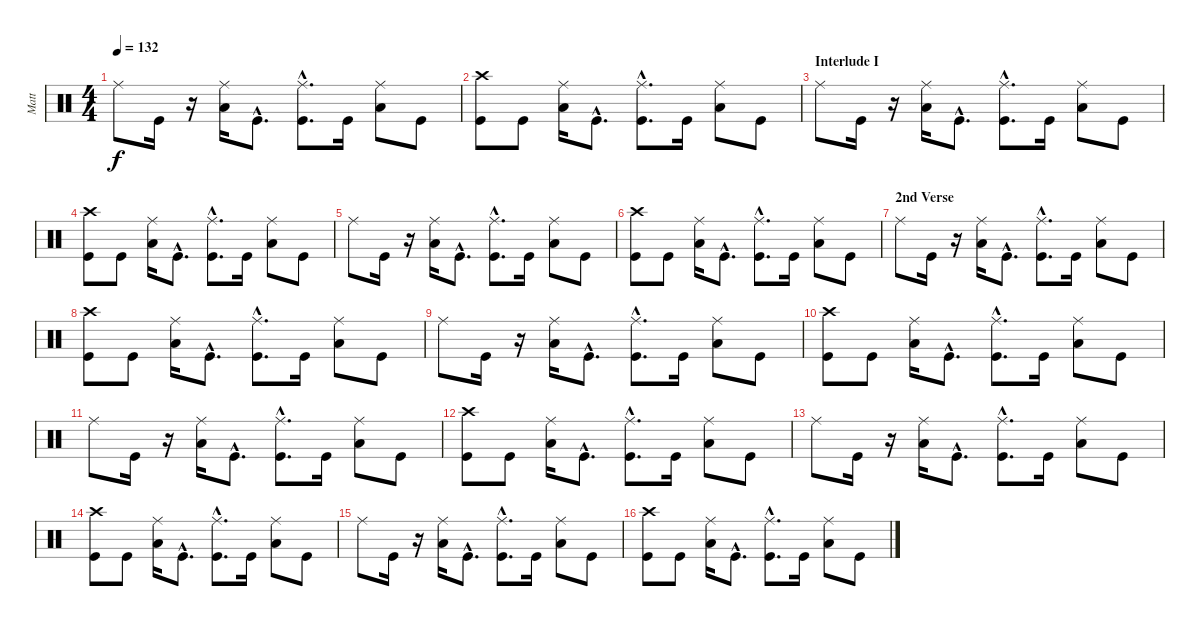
\track ("Matt" "Matt") {instrument percussion}
\staff {score}
\articulation defaults
\ts (4 4)
\tempo 132
\clef neutral
\ks c "Ride (middle)".8{dy f} "Kick (hit)".16
r.16 ("Ride (middle)" "Low Tom (hit)").16 "Kick (hit)"{hac}.8{d} ("Ride (middle)" "Kick (hit)"{hac}).8{d} "Kick (hit)".16 ("Low Tom (hit)" "Ride (middle)").8 "Kick (hit)".8 |
("Kick (hit)" "Crash high (hit)").8 "Kick (hit)".8 ("Ride (middle)" "Low Tom (hit)").16 "Kick (hit)"{hac}.8{d} ("Kick (hit)"{hac} "Ride (middle)").8{d} "Kick (hit)".16 ("Low Tom (hit)" "Ride (middle)").8 "Kick (hit)".8 |
\section ("" "Interlude I")
"Ride (middle)".8 "Kick (hit)".16 r.16 ("Ride (middle)" "Low Tom (hit)").16 "Kick (hit)"{hac}.8{d} ("Kick (hit)"{hac} "Ride (middle)").8{d} "Kick (hit)".16 ("Ride (middle)" "Low Tom (hit)").8 "Kick (hit)".8 |
("Kick (hit)" "Crash high (hit)").8 "Kick (hit)".8 ("Ride (middle)" "Low Tom (hit)").16 "Kick (hit)"{hac}.8{d} ("Ride (middle)" "Kick (hit)"{hac}).8{d} "Kick (hit)".16 ("Ride (middle)" "Low Tom (hit)").8 "Kick (hit)".8 |
"Ride (middle)".8 "Kick (hit)".16 r.16 ("Ride (middle)" "Low Tom (hit)").16 "Kick (hit)"{hac}.8{d} ("Kick (hit)"{hac} "Ride (middle)").8{d} "Kick (hit)".16 ("Low Tom (hit)" "Ride (middle)").8 "Kick (hit)".8 |
("Crash high (hit)" "Kick (hit)").8 "Kick (hit)".8 ("Low Tom (hit)" "Ride (middle)").16 "Kick (hit)"{hac}.8{d} ("Ride (middle)" "Kick (hit)"{hac}).8{d} "Kick (hit)".16 ("Ride (middle)" "Low Tom (hit)").8 "Kick (hit)".8 |
\section ("" "2nd Verse")
"Ride (middle)".8 "Kick (hit)".16 r.16 ("Low Tom (hit)" "Ride (middle)").16 "Kick (hit)"{hac}.8{d} ("Kick (hit)"{hac} "Ride (middle)").8{d} "Kick (hit)".16 ("Ride (middle)" "Low Tom (hit)").8 "Kick (hit)".8 |
("Kick (hit)" "Crash high (hit)").8 "Kick (hit)".8 ("Low Tom (hit)" "Ride (middle)").16 "Kick (hit)"{hac}.8{d} ("Ride (middle)" "Kick (hit)"{hac}).8{d} "Kick (hit)".16 ("Ride (middle)" "Low Tom (hit)").8 "Kick (hit)".8 |
"Ride (middle)".8 "Kick (hit)".16 r.16 ("Low Tom (hit)" "Ride (middle)").16 "Kick (hit)"{hac}.8{d} ("Kick (hit)"{hac} "Ride (middle)").8{d} "Kick (hit)".16 ("Low Tom (hit)" "Ride (middle)").8 "Kick (hit)".8 |
("Crash high (hit)" "Kick (hit)").8 "Kick (hit)".8 ("Ride (middle)" "Low Tom (hit)").16 "Kick (hit)"{hac}.8{d} ("Kick (hit)"{hac} "Ride (middle)").8{d} "Kick (hit)".16 ("Low Tom (hit)" "Ride (middle)").8 "Kick (hit)".8 |
"Ride (middle)".8 "Kick (hit)".16 r.16 ("Ride (middle)" "Low Tom (hit)").16 "Kick (hit)"{hac}.8{d} ("Ride (middle)" "Kick (hit)"{hac}).8{d} "Kick (hit)".16 ("Ride (middle)" "Low Tom (hit)").8 "Kick (hit)".8 |
("Crash high (hit)" "Kick (hit)").8 "Kick (hit)".8 ("Low Tom (hit)" "Ride (middle)").16 "Kick (hit)"{hac}.8{d} ("Ride (middle)" "Kick (hit)"{hac}).8{d} "Kick (hit)".16 ("Low Tom (hit)" "Ride (middle)").8 "Kick (hit)".8 |
"Ride (middle)".8 "Kick (hit)".16 r.16 ("Low Tom (hit)" "Ride (middle)").16 "Kick (hit)"{hac}.8{d} ("Kick (hit)"{hac} "Ride (middle)").8{d} "Kick (hit)".16 ("Low Tom (hit)" "Ride (middle)").8 "Kick (hit)".8 |
("Kick (hit)" "Crash high (hit)").8 "Kick (hit)".8 ("Ride (middle)" "Low Tom (hit)").16 "Kick (hit)"{hac}.8{d} ("Kick (hit)"{hac} "Ride (middle)").8{d} "Kick (hit)".16 ("Ride (middle)" "Low Tom (hit)").8 "Kick (hit)".8 |
"Ride (middle)".8 "Kick (hit)".16 r.16 ("Low Tom (hit)" "Ride (middle)").16 "Kick (hit)"{hac}.8{d} ("Kick (hit)"{hac} "Ride (middle)").8{d} "Kick (hit)".16 ("Low Tom (hit)" "Ride (middle)").8 "Kick (hit)".8 |
("Kick (hit)" "Crash high (hit)").8 "Kick (hit)".8 ("Low Tom (hit)" "Ride (middle)").16 "Kick (hit)"{hac}.8{d} ("Kick (hit)"{hac} "Ride (middle)").8{d} "Kick (hit)".16 ("Ride (middle)" "Low Tom (hit)").8 "Kick (hit)".8
